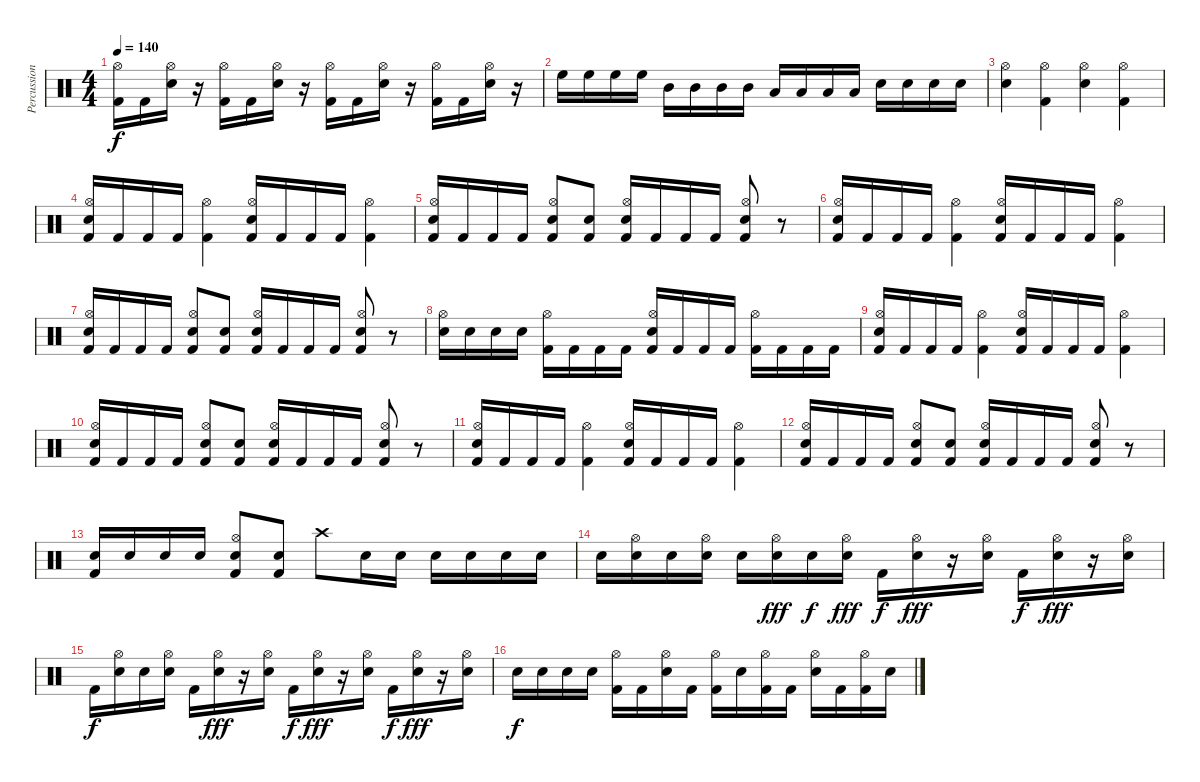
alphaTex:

\track ("Percussions" "Percussion") {instrument percussion}
\staff {score}
\articulation defaults
\ts (4 4)
\tempo 140
\clef neutral
\ks c
("Kick (hit) 2" "Hi-Hat (open)").16{dy f} "Kick (hit) 2".16 ("Electric Snare (hit)" "Hi-Hat (open)").16 r.16 ("Kick (hit) 2" "Hi-Hat (open)").16 "Kick (hit) 2".16 ("Electric Snare (hit)" "Hi-Hat (open)").16 r.16 ("Kick (hit) 2" "Hi-Hat (open)").16 "Kick (hit) 2".16 ("Electric Snare (hit)" "Hi-Hat (open)").16 r.16 ("Kick (hit) 2" "Hi-Hat (open)").16 "Kick (hit) 2".16 ("Electric Snare (hit)" "Hi-Hat (open)").16 r.16 |
"High Floor Tom (hit)".16 "High Floor Tom (hit)".16 "High Floor Tom (hit)".16 "High Floor Tom (hit)".16 "Mid Tom (hit)".16 "Mid Tom (hit)".16 "Mid Tom (hit)".16 "Mid Tom (hit)".16 "Low Tom (hit)".16 "Low Tom (hit)".16 "Low Tom (hit)".16 "Low Tom (hit)".16 "Electric Snare (hit)".16 "Electric Snare (hit)".16 "Electric Snare (hit)".16 "Electric Snare (hit)".16 |
("Hi-Hat (open)" "Electric Snare (hit)").4 ("Hi-Hat (open)" "Kick (hit) 2").4 ("Hi-Hat (open)" "Electric Snare (hit)").4 ("Hi-Hat (open)" "Kick (hit) 2").4 |
("Kick (hit) 2" "Electric Snare (hit)" "Hi-Hat (open)").16 "Kick (hit) 2".16 "Kick (hit) 2".16 "Kick (hit) 2".16 ("Kick (hit) 2" "Hi-Hat (open)").4 ("Kick (hit) 2" "Electric Snare (hit)" "Hi-Hat (open)").16 "Kick (hit) 2".16 "Kick (hit) 2".16 "Kick (hit) 2".16 ("Kick (hit) 2" "Hi-Hat (open)").4 |
("Kick (hit) 2" "Electric Snare (hit)" "Hi-Hat (open)").16 "Kick (hit) 2".16 "Kick (hit) 2".16 "Kick (hit) 2".16 ("Kick (hit) 2" "Electric Snare (hit)" "Hi-Hat (open)").8 ("Kick (hit) 2" "Electric Snare (hit)").8 ("Kick (hit) 2" "Electric Snare (hit)" "Hi-Hat (open)").16 "Kick (hit) 2".16 "Kick (hit) 2".16 "Kick (hit) 2".16 ("Kick (hit) 2" "Electric Snare (hit)" "Hi-Hat (open)").8 r.8 |
("Kick (hit) 2" "Electric Snare (hit)" "Hi-Hat (open)").16 "Kick (hit) 2".16 "Kick (hit) 2".16 "Kick (hit) 2".16 ("Kick (hit) 2" "Hi-Hat (open)").4 ("Kick (hit) 2" "Electric Snare (hit)" "Hi-Hat (open)").16 "Kick (hit) 2".16 "Kick (hit) 2".16 "Kick (hit) 2".16 ("Kick (hit) 2" "Hi-Hat (open)").4 |
("Kick (hit) 2" "Electric Snare (hit)" "Hi-Hat (open)").16 "Kick (hit) 2".16 "Kick (hit) 2".16 "Kick (hit) 2".16 ("Kick (hit) 2" "Electric Snare (hit)" "Hi-Hat (open)").8 ("Kick (hit) 2" "Electric Snare (hit)").8 ("Kick (hit) 2" "Electric Snare (hit)" "Hi-Hat (open)").16 "Kick (hit) 2".16 "Kick (hit) 2".16 "Kick (hit) 2".16 ("Kick (hit) 2" "Electric Snare (hit)" "Hi-Hat (open)").8 r.8 |
("Electric Snare (hit)" "Hi-Hat (open)").16 "Electric Snare (hit)".16 "Electric Snare (hit)".16 "Electric Snare (hit)".16 ("Kick (hit) 2" "Hi-Hat (open)").16 "Kick (hit) 2".16 "Kick (hit) 2".16 "Kick (hit) 2".16 ("Kick (hit) 2" "Hi-Hat (open)" "Electric Snare (hit)").16 "Kick (hit) 2".16 "Kick (hit) 2".16 "Kick (hit) 2".16 ("Kick (hit) 2" "Hi-Hat (open)").16 "Kick (hit) 2".16 "Kick (hit) 2".16 "Kick (hit) 2".16 |
("Kick (hit) 2" "Electric Snare (hit)" "Hi-Hat (open)").16 "Kick (hit) 2".16 "Kick (hit) 2".16 "Kick (hit) 2".16 ("Kick (hit) 2" "Hi-Hat (open)").4 ("Kick (hit) 2" "Electric Snare (hit)" "Hi-Hat (open)").16 "Kick (hit) 2".16 "Kick (hit) 2".16 "Kick (hit) 2".16 ("Kick (hit) 2" "Hi-Hat (open)").4 |
("Kick (hit) 2" "Electric Snare (hit)" "Hi-Hat (open)").16 "Kick (hit) 2".16 "Kick (hit) 2".16 "Kick (hit) 2".16 ("Kick (hit) 2" "Electric Snare (hit)" "Hi-Hat (open)").8 ("Kick (hit) 2" "Electric Snare (hit)").8 ("Kick (hit) 2" "Electric Snare (hit)" "Hi-Hat (open)").16 "Kick (hit) 2".16 "Kick (hit) 2".16 "Kick (hit) 2".16 ("Kick (hit) 2" "Electric Snare (hit)" "Hi-Hat (open)").8 r.8 |
("Kick (hit) 2" "Electric Snare (hit)" "Hi-Hat (open)").16 "Kick (hit) 2".16 "Kick (hit) 2".16 "Kick (hit) 2".16 ("Kick (hit) 2" "Hi-Hat (open)").4 ("Kick (hit) 2" "Electric Snare (hit)" "Hi-Hat (open)").16 "Kick (hit) 2".16 "Kick (hit) 2".16 "Kick (hit) 2".16 ("Kick (hit) 2" "Hi-Hat (open)").4 |
("Kick (hit) 2" "Electric Snare (hit)" "Hi-Hat (open)").16 "Kick (hit) 2".16 "Kick (hit) 2".16 "Kick (hit) 2".16 ("Kick (hit) 2" "Electric Snare (hit)" "Hi-Hat (open)").8 ("Kick (hit) 2" "Electric Snare (hit)").8 ("Kick (hit) 2" "Electric Snare (hit)" "Hi-Hat (open)").16 "Kick (hit) 2".16 "Kick (hit) 2".16 "Kick (hit) 2".16 ("Kick (hit) 2" "Electric Snare (hit)" "Hi-Hat (open)").8 r.8 |
("Electric Snare (hit)" "Kick (hit) 2").16 "Electric Snare (hit)".16 "Electric Snare (hit)".16 "Electric Snare (hit)".16 ("Electric Snare (hit)" "Kick (hit) 2" "Hi-Hat (open)").8 ("Electric Snare (hit)" "Kick (hit) 2").8 "Crash high (hit)".8 "Electric Snare (hit)".16 "Electric Snare (hit)".16 "Electric Snare (hit)".16 "Electric Snare (hit)".16 "Electric Snare (hit)".16 "Electric Snare (hit)".16 |
"Electric Snare (hit)".16 ("Electric Snare (hit)" "Hi-Hat (open)").16 "Electric Snare (hit)".16 ("Electric Snare (hit)" "Hi-Hat (open)").16 "Electric Snare (hit)".16 ("Electric Snare (hit)" "Hi-Hat (open)").16{dy fff} "Electric Snare (hit)".16{dy f} ("Electric Snare (hit)" "Hi-Hat (open)").16{dy fff} "Kick (hit) 2".16{dy f} ("Electric Snare (hit)" "Hi-Hat (open)").16{dy fff} r.16 ("Electric Snare (hit)" "Hi-Hat (open)").16 "Kick (hit) 2".16{dy f} ("Electric Snare (hit)" "Hi-Hat (open)").16{dy fff} r.16 ("Electric Snare (hit)" "Hi-Hat (open)").16 |
"Kick (hit) 2".16{dy f} ("Electric Snare (hit)" "Hi-Hat (open)").16 "Electric Snare (hit)".16 ("Electric Snare (hit)" "Hi-Hat (open)").16 "Kick (hit) 2".16 ("Electric Snare (hit)" "Hi-Hat (open)").16{dy fff} r.16 ("Electric Snare (hit)" "Hi-Hat (open)").16 "Kick (hit) 2".16{dy f} ("Electric Snare (hit)" "Hi-Hat (open)").16{dy fff} r.16 ("Electric Snare (hit)" "Hi-Hat (open)").16 "Kick (hit) 2".16{dy f} ("Electric Snare (hit)" "Hi-Hat (open)").16{dy fff} r.16 ("Electric Snare (hit)" "Hi-Hat (open)").16 |
"Electric Snare (hit)".16{dy f} "Electric Snare (hit)".16 "Electric Snare (hit)".16 "Electric Snare (hit)".16 ("Hi-Hat (open)" "Kick (hit) 2").16 "Kick (hit) 2".16 ("Hi-Hat (open)" "Electric Snare (hit)").16 "Kick (hit) 2".16 ("Hi-Hat (open)" "Kick (hit) 2").16 "Electric Snare (hit)".16 ("Hi-Hat (open)" "Kick (hit) 2").16 "Kick (hit) 2".16 ("Hi-Hat (open)" "Electric Snare (hit)").16 "Kick (hit) 2".16 ("Hi-Hat (open)" "Kick (hit) 2").16 "Electric Snare (hit)".16
